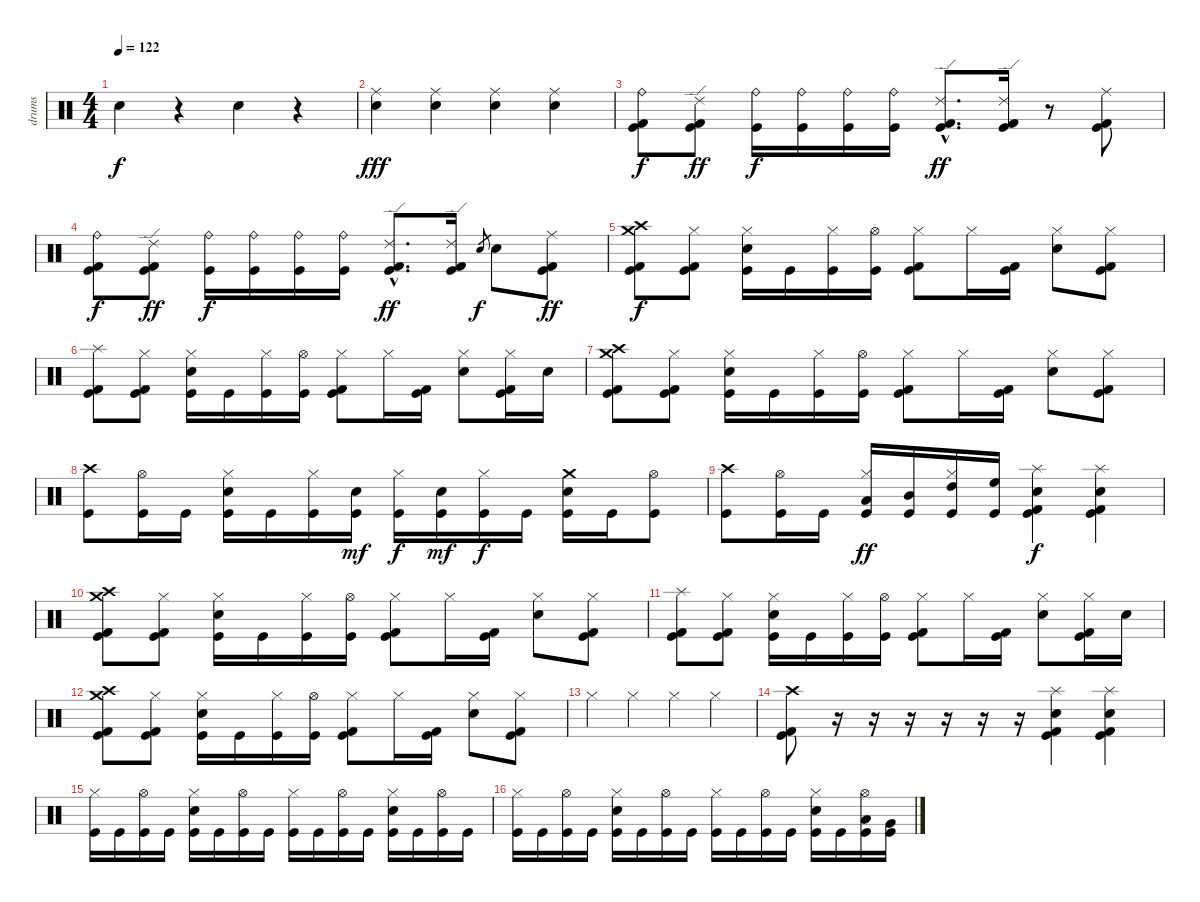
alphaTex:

\track ("drums" "drums") {instrument percussion}
\staff {score}
\articulation defaults
\ts (4 4)
\tempo 122
\clef neutral
\ks c "Electric Snare (hit)".4{dy f}
r.4 "Electric Snare (hit)".4 r.4 |
("Electric Snare (hit)" "Ride (middle)").4{dy fff} ("Electric Snare (hit)" "Ride (middle)").4 ("Electric Snare (hit)" "Ride (middle)").4 ("Electric Snare (hit)" "Ride (middle)").4 |
("Ride (bell)" "Kick (hit) 2" "Kick (hit)").8{dy f} ("Ride (edge) 2" "Kick (hit)" "Kick (hit) 2").8{dy ff} ("Ride (bell)" "Kick (hit)").16{dy f} ("Ride (bell)" "Kick (hit)").16 ("Ride (bell)" "Kick (hit)").16 ("Ride (bell)" "Kick (hit)").16 ("Ride (edge) 2"{hac} "Kick (hit) 2"{hac} "Kick (hit)"{hac}).8{d dy ff} ("Ride (edge) 2" "Kick (hit) 2" "Kick (hit)").16 r.8 ("Ride (middle)" "Kick (hit) 2" "Kick (hit)").8 |
("Ride (bell)" "Kick (hit) 2" "Kick (hit)").8{dy f} ("Ride (edge) 2" "Kick (hit)" "Kick (hit) 2").8{dy ff} ("Ride (bell)" "Kick (hit)").16{dy f} ("Ride (bell)" "Kick (hit)").16 ("Ride (bell)" "Kick (hit)").16 ("Ride (bell)" "Kick (hit)").16 ("Ride (edge) 2"{hac} "Kick (hit) 2"{hac} "Kick (hit)"{hac}).8{d dy ff} ("Ride (edge) 2" "Kick (hit) 2" "Kick (hit)").16 "Electric Snare (hit)".8{gr dy f} "Electric Snare (hit)".8 ("Ride (middle)" "Kick (hit) 2" "Kick (hit)").8{dy ff} |
("Crash high (hit)" "Crash medium (hit)" "Kick (hit) 2" "Kick (hit)").8{dy f} ("Hi-Hat (closed)" "Kick (hit) 2" "Kick (hit)").8 ("Hi-Hat (closed)" "Electric Snare (hit)" "Kick (hit)").16 "Kick (hit)".16 ("Hi-Hat (closed)" "Kick (hit)").16 ("Hi-Hat (open)" "Kick (hit)").16 ("Hi-Hat (closed)" "Kick (hit) 2" "Kick (hit)").8 "Hi-Hat (closed)".16 ("Kick (hit) 2" "Kick (hit)").16 ("Hi-Hat (closed)" "Electric Snare (hit)").8 ("Hi-Hat (closed)" "Kick (hit) 2" "Kick (hit)").8 |
("Splash (hit)" "Kick (hit) 2" "Kick (hit)").8 ("Hi-Hat (closed)" "Kick (hit) 2" "Kick (hit)").8 ("Hi-Hat (closed)" "Electric Snare (hit)" "Kick (hit)").16 "Kick (hit)".16 ("Hi-Hat (closed)" "Kick (hit)").16 ("Hi-Hat (open)" "Kick (hit)").16 ("Hi-Hat (closed)" "Kick (hit) 2" "Kick (hit)").8 "Hi-Hat (closed)".16 ("Kick (hit) 2" "Kick (hit)").16 ("Hi-Hat (closed)" "Electric Snare (hit)").8 ("Hi-Hat (closed)" "Kick (hit) 2" "Kick (hit)").16 "Electric Snare (hit)".16 |
("Crash high (hit)" "Crash medium (hit)" "Kick (hit) 2" "Kick (hit)").8 ("Hi-Hat (closed)" "Kick (hit) 2" "Kick (hit)").8 ("Hi-Hat (closed)" "Electric Snare (hit)" "Kick (hit)").16 "Kick (hit)".16 ("Hi-Hat (closed)" "Kick (hit)").16 ("Hi-Hat (open)" "Kick (hit)").16 ("Hi-Hat (closed)" "Kick (hit) 2" "Kick (hit)").8 "Hi-Hat (closed)".16 ("Kick (hit) 2" "Kick (hit)").16 ("Hi-Hat (closed)" "Electric Snare (hit)").8 ("Hi-Hat (closed)" "Kick (hit) 2" "Kick (hit)").8 |
("Crash high (hit)" "Kick (hit)").8 ("Hi-Hat (open)" "Kick (hit)").16 "Kick (hit)".16 ("Hi-Hat (closed)" "Electric Snare (hit)" "Kick (hit)").16 "Kick (hit)".16 ("Hi-Hat (closed)" "Kick (hit)").16 ("Electric Snare (hit)" "Kick (hit)").16{dy mf} ("Hi-Hat (closed)" "Kick (hit)").16{dy f} ("Electric Snare (hit)" "Kick (hit)").16{dy mf} ("Hi-Hat (closed)" "Kick (hit)").16{dy f} "Kick (hit)".16 ("Crash medium (hit)" "Electric Snare (hit)" "Kick (hit)").16 "Kick (hit)".16 ("Hi-Hat (open)" "Kick (hit)").8 |
("Crash high (hit)" "Kick (hit)").8 ("Hi-Hat (open)" "Kick (hit)").16 "Kick (hit)".16 ("Hi-Hat (closed)" "Low Tom (hit)" "Kick (hit)").16{dy ff} ("Mid Tom (hit)" "Kick (hit)").16 ("Hi-Hat (closed)" "High Tom (hit)" "Kick (hit)").16 ("High Floor Tom (hit)" "Kick (hit)").16 ("Splash (hit)" "Electric Snare (hit)" "Kick (hit) 2" "Kick (hit)").4{dy f} ("Splash (hit)" "Electric Snare (hit)" "Kick (hit) 2" "Kick (hit)").4 |
("Crash high (hit)" "Crash medium (hit)" "Kick (hit) 2" "Kick (hit)").8 ("Hi-Hat (closed)" "Kick (hit) 2" "Kick (hit)").8 ("Hi-Hat (closed)" "Electric Snare (hit)" "Kick (hit)").16 "Kick (hit)".16 ("Hi-Hat (closed)" "Kick (hit)").16 ("Hi-Hat (open)" "Kick (hit)").16 ("Hi-Hat (closed)" "Kick (hit) 2" "Kick (hit)").8 "Hi-Hat (closed)".16 ("Kick (hit) 2" "Kick (hit)").16 ("Hi-Hat (closed)" "Electric Snare (hit)").8 ("Hi-Hat (closed)" "Kick (hit) 2" "Kick (hit)").8 |
("Splash (hit)" "Kick (hit) 2" "Kick (hit)").8 ("Hi-Hat (closed)" "Kick (hit) 2" "Kick (hit)").8 ("Hi-Hat (closed)" "Electric Snare (hit)" "Kick (hit)").16 "Kick (hit)".16 ("Hi-Hat (closed)" "Kick (hit)").16 ("Hi-Hat (open)" "Kick (hit)").16 ("Hi-Hat (closed)" "Kick (hit) 2" "Kick (hit)").8 "Hi-Hat (closed)".16 ("Kick (hit) 2" "Kick (hit)").16 ("Hi-Hat (closed)" "Electric Snare (hit)").8 ("Hi-Hat (closed)" "Kick (hit) 2" "Kick (hit)").16 "Electric Snare (hit)".16 |
("Crash high (hit)" "Crash medium (hit)" "Kick (hit) 2" "Kick (hit)").8 ("Hi-Hat (closed)" "Kick (hit) 2" "Kick (hit)").8 ("Hi-Hat (closed)" "Electric Snare (hit)" "Kick (hit)").16 "Kick (hit)".16 ("Hi-Hat (closed)" "Kick (hit)").16 ("Hi-Hat (open)" "Kick (hit)").16 ("Hi-Hat (closed)" "Kick (hit) 2" "Kick (hit)").8 "Hi-Hat (closed)".16 ("Kick (hit) 2" "Kick (hit)").16 ("Hi-Hat (closed)" "Electric Snare (hit)").8 ("Hi-Hat (closed)" "Kick (hit) 2" "Kick (hit)").8 |
"Hi-Hat (closed)".4 "Hi-Hat (closed)".4 "Hi-Hat (closed)".4 "Hi-Hat (closed)".4 |
("Crash high (hit)" "Kick (hit) 2" "Kick (hit)").8 r.16 r.16 r.16 r.16 r.16 r.16 ("Splash (hit)" "Electric Snare (hit)" "Kick (hit) 2" "Kick (hit)").4 ("Splash (hit)" "Electric Snare (hit)" "Kick (hit) 2" "Kick (hit)").4 |
("Hi-Hat (closed)" "Kick (hit)").16 "Kick (hit)".16 ("Hi-Hat (open)" "Kick (hit)").16 "Kick (hit)".16 ("Hi-Hat (closed)" "Electric Snare (hit)" "Kick (hit)").16 "Kick (hit)".16 ("Hi-Hat (open)" "Kick (hit)").16 "Kick (hit)".16 ("Hi-Hat (closed)" "Kick (hit)").16 "Kick (hit)".16 ("Hi-Hat (open)" "Kick (hit)").16 "Kick (hit)".16 ("Hi-Hat (closed)" "Electric Snare (hit)" "Kick (hit)").16 "Kick (hit)".16 ("Hi-Hat (open)" "Kick (hit)").16 "Kick (hit)".16 |
("Hi-Hat (closed)" "Kick (hit)").16 "Kick (hit)".16 ("Hi-Hat (open)" "Kick (hit)").16 "Kick (hit)".16 ("Hi-Hat (closed)" "Electric Snare (hit)" "Kick (hit)").16 "Kick (hit)".16 ("Hi-Hat (open)" "Kick (hit)").16 "Kick (hit)".16 ("Hi-Hat (closed)" "Kick (hit)").16 "Kick (hit)".16 ("Hi-Hat (open)" "Kick (hit)").16 "Kick (hit)".16 ("Hi-Hat (closed)" "Electric Snare (hit)" "Kick (hit)").16 "Kick (hit)".16 ("Hi-Hat (open)" "Low Floor Tom (hit)" "Kick (hit)").16 ("Very Low Tom (hit)" "Kick (hit)").16
